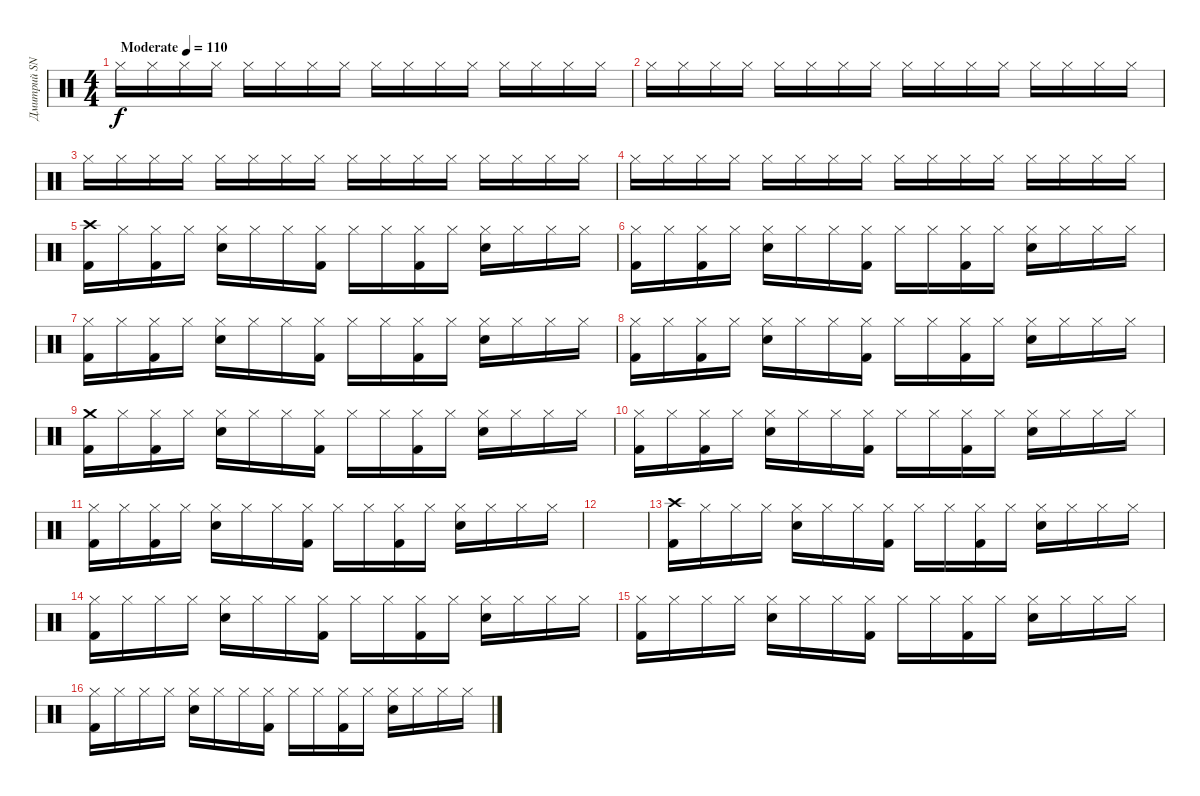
\track ("Дмитрий SNAKE Хакимов" "Дмитрий SN") {instrument percussion}
\staff {score}
\articulation defaults
\ts (4 4)
\tempo (110 "Moderate")
\clef neutral
\ks c "Hi-Hat (closed)".16{dy f} "Hi-Hat (closed)".16 "Hi-Hat (closed)".16 "Hi-Hat (closed)".16 "Hi-Hat (closed)".16 "Hi-Hat (closed)".16 "Hi-Hat (closed)".16 "Hi-Hat (closed)".16 "Hi-Hat (closed)".16 "Hi-Hat (closed)".16 "Hi-Hat (closed)".16 "Hi-Hat (closed)".16 "Hi-Hat (closed)".16 "Hi-Hat (closed)".16 "Hi-Hat (closed)".16 "Hi-Hat (closed)".16
|
"Hi-Hat (closed)".16 "Hi-Hat (closed)".16 "Hi-Hat (closed)".16 "Hi-Hat (closed)".16 "Hi-Hat (closed)".16 "Hi-Hat (closed)".16 "Hi-Hat (closed)".16 "Hi-Hat (closed)".16 "Hi-Hat (closed)".16 "Hi-Hat (closed)".16 "Hi-Hat (closed)".16 "Hi-Hat (closed)".16 "Hi-Hat (closed)".16 "Hi-Hat (closed)".16 "Hi-Hat (closed)".16 "Hi-Hat (closed)".16 |
"Hi-Hat (closed)".16 "Hi-Hat (closed)".16 "Hi-Hat (closed)".16 "Hi-Hat (closed)".16 "Hi-Hat (closed)".16 "Hi-Hat (closed)".16 "Hi-Hat (closed)".16 "Hi-Hat (closed)".16 "Hi-Hat (closed)".16 "Hi-Hat (closed)".16 "Hi-Hat (closed)".16 "Hi-Hat (closed)".16 "Hi-Hat (closed)".16 "Hi-Hat (closed)".16 "Hi-Hat (closed)".16 "Hi-Hat (closed)".16 |
"Hi-Hat (closed)".16 "Hi-Hat (closed)".16 "Hi-Hat (closed)".16 "Hi-Hat (closed)".16 "Hi-Hat (closed)".16 "Hi-Hat (closed)".16 "Hi-Hat (closed)".16 "Hi-Hat (closed)".16 "Hi-Hat (closed)".16 "Hi-Hat (closed)".16 "Hi-Hat (closed)".16 "Hi-Hat (closed)".16 "Hi-Hat (closed)".16 "Hi-Hat (closed)".16 "Hi-Hat (closed)".16 "Hi-Hat (closed)".16 |
("Crash high (hit)" "Kick (hit) 2").16 "Hi-Hat (closed)".16 ("Hi-Hat (closed)" "Kick (hit) 2").16 "Hi-Hat (closed)".16 ("Hi-Hat (closed)" "Snare (hit) 2").16 "Hi-Hat (closed)".16 "Hi-Hat (closed)".16 ("Hi-Hat (closed)" "Kick (hit) 2").16 "Hi-Hat (closed)".16 "Hi-Hat (closed)".16 ("Hi-Hat (closed)" "Kick (hit) 2").16 "Hi-Hat (closed)".16 ("Hi-Hat (closed)" "Snare (hit) 2").16 "Hi-Hat (closed)".16 "Hi-Hat (closed)".16 "Hi-Hat (closed)".16 |
("Hi-Hat (closed)" "Kick (hit) 2").16 "Hi-Hat (closed)".16 ("Hi-Hat (closed)" "Kick (hit) 2").16 "Hi-Hat (closed)".16 ("Hi-Hat (closed)" "Snare (hit) 2").16 "Hi-Hat (closed)".16 "Hi-Hat (closed)".16 ("Hi-Hat (closed)" "Kick (hit) 2").16 "Hi-Hat (closed)".16 "Hi-Hat (closed)".16 ("Hi-Hat (closed)" "Kick (hit) 2").16 "Hi-Hat (closed)".16 ("Hi-Hat (closed)" "Snare (hit) 2").16 "Hi-Hat (closed)".16 "Hi-Hat (closed)".16 "Hi-Hat (closed)".16 |
("Hi-Hat (closed)" "Kick (hit) 2").16 "Hi-Hat (closed)".16 ("Hi-Hat (closed)" "Kick (hit) 2").16 "Hi-Hat (closed)".16 ("Hi-Hat (closed)" "Snare (hit) 2").16 "Hi-Hat (closed)".16 "Hi-Hat (closed)".16 ("Hi-Hat (closed)" "Kick (hit) 2").16 "Hi-Hat (closed)".16 "Hi-Hat (closed)".16 ("Hi-Hat (closed)" "Kick (hit) 2").16 "Hi-Hat (closed)".16 ("Hi-Hat (closed)" "Snare (hit) 2").16 "Hi-Hat (closed)".16 "Hi-Hat (closed)".16 "Hi-Hat (closed)".16 |
("Hi-Hat (closed)" "Kick (hit) 2").16 "Hi-Hat (closed)".16 ("Hi-Hat (closed)" "Kick (hit) 2").16 "Hi-Hat (closed)".16 ("Hi-Hat (closed)" "Snare (hit) 2").16 "Hi-Hat (closed)".16 "Hi-Hat (closed)".16 ("Hi-Hat (closed)" "Kick (hit) 2").16 "Hi-Hat (closed)".16 "Hi-Hat (closed)".16 ("Hi-Hat (closed)" "Kick (hit) 2").16 "Hi-Hat (closed)".16 ("Hi-Hat (closed)" "Snare (hit) 2").16 "Hi-Hat (closed)".16 "Hi-Hat (closed)".16 "Hi-Hat (closed)".16 |
("Crash medium (hit)" "Kick (hit) 2").16 "Hi-Hat (closed)".16 ("Hi-Hat (closed)" "Kick (hit) 2").16 "Hi-Hat (closed)".16 ("Hi-Hat (closed)" "Snare (hit) 2").16 "Hi-Hat (closed)".16 "Hi-Hat (closed)".16 ("Hi-Hat (closed)" "Kick (hit) 2").16 "Hi-Hat (closed)".16 "Hi-Hat (closed)".16 ("Hi-Hat (closed)" "Kick (hit) 2").16 "Hi-Hat (closed)".16 ("Hi-Hat (closed)" "Snare (hit) 2").16 "Hi-Hat (closed)".16 "Hi-Hat (closed)".16 "Hi-Hat (closed)".16 |
("Hi-Hat (closed)" "Kick (hit) 2").16 "Hi-Hat (closed)".16 ("Hi-Hat (closed)" "Kick (hit) 2").16 "Hi-Hat (closed)".16 ("Hi-Hat (closed)" "Snare (hit) 2").16 "Hi-Hat (closed)".16 "Hi-Hat (closed)".16 ("Hi-Hat (closed)" "Kick (hit) 2").16 "Hi-Hat (closed)".16 "Hi-Hat (closed)".16 ("Hi-Hat (closed)" "Kick (hit) 2").16 "Hi-Hat (closed)".16 ("Hi-Hat (closed)" "Snare (hit) 2").16 "Hi-Hat (closed)".16 "Hi-Hat (closed)".16 "Hi-Hat (closed)".16 |
("Hi-Hat (closed)" "Kick (hit) 2").16 "Hi-Hat (closed)".16 ("Hi-Hat (closed)" "Kick (hit) 2").16 "Hi-Hat (closed)".16 ("Hi-Hat (closed)" "Snare (hit) 2").16 "Hi-Hat (closed)".16 "Hi-Hat (closed)".16 ("Hi-Hat (closed)" "Kick (hit) 2").16 "Hi-Hat (closed)".16 "Hi-Hat (closed)".16 ("Hi-Hat (closed)" "Kick (hit) 2").16 "Hi-Hat (closed)".16 ("Hi-Hat (closed)" "Snare (hit) 2").16 "Hi-Hat (closed)".16 "Hi-Hat (closed)".16 "Hi-Hat (closed)".16 |
|
("Crash high (hit)" "Kick (hit) 2").16 "Hi-Hat (closed)".16 "Hi-Hat (closed)".16 "Hi-Hat (closed)".16 ("Hi-Hat (closed)" "Electric Snare (hit)").16 "Hi-Hat (closed)".16 "Hi-Hat (closed)".16 ("Hi-Hat (closed)" "Kick (hit) 2").16 "Hi-Hat (closed)".16 "Hi-Hat (closed)".16 ("Hi-Hat (closed)" "Kick (hit) 2").16 "Hi-Hat (closed)".16 ("Hi-Hat (closed)" "Electric Snare (hit)").16 "Hi-Hat (closed)".16 "Hi-Hat (closed)".16 "Hi-Hat (closed)".16 |
("Hi-Hat (closed)" "Kick (hit) 2").16 "Hi-Hat (closed)".16 "Hi-Hat (closed)".16 "Hi-Hat (closed)".16 ("Hi-Hat (closed)" "Electric Snare (hit)").16 "Hi-Hat (closed)".16 "Hi-Hat (closed)".16 ("Hi-Hat (closed)" "Kick (hit) 2").16 "Hi-Hat (closed)".16 "Hi-Hat (closed)".16 ("Hi-Hat (closed)" "Kick (hit) 2").16 "Hi-Hat (closed)".16 ("Hi-Hat (closed)" "Electric Snare (hit)").16 "Hi-Hat (closed)".16 "Hi-Hat (closed)".16 "Hi-Hat (closed)".16 |
("Hi-Hat (closed)" "Kick (hit) 2").16 "Hi-Hat (closed)".16 "Hi-Hat (closed)".16 "Hi-Hat (closed)".16 ("Hi-Hat (closed)" "Electric Snare (hit)").16 "Hi-Hat (closed)".16 "Hi-Hat (closed)".16 ("Hi-Hat (closed)" "Kick (hit) 2").16 "Hi-Hat (closed)".16 "Hi-Hat (closed)".16 ("Hi-Hat (closed)" "Kick (hit) 2").16 "Hi-Hat (closed)".16 ("Hi-Hat (closed)" "Electric Snare (hit)").16 "Hi-Hat (closed)".16 "Hi-Hat (closed)".16 "Hi-Hat (closed)".16 |
("Hi-Hat (closed)" "Kick (hit) 2").16 "Hi-Hat (closed)".16 "Hi-Hat (closed)".16 "Hi-Hat (closed)".16 ("Hi-Hat (closed)" "Electric Snare (hit)").16 "Hi-Hat (closed)".16 "Hi-Hat (closed)".16 ("Hi-Hat (closed)" "Kick (hit) 2").16 "Hi-Hat (closed)".16 "Hi-Hat (closed)".16 ("Hi-Hat (closed)" "Kick (hit) 2").16 "Hi-Hat (closed)".16 ("Hi-Hat (closed)" "Electric Snare (hit)").16 "Hi-Hat (closed)".16 "Hi-Hat (closed)".16 "Hi-Hat (closed)".16
